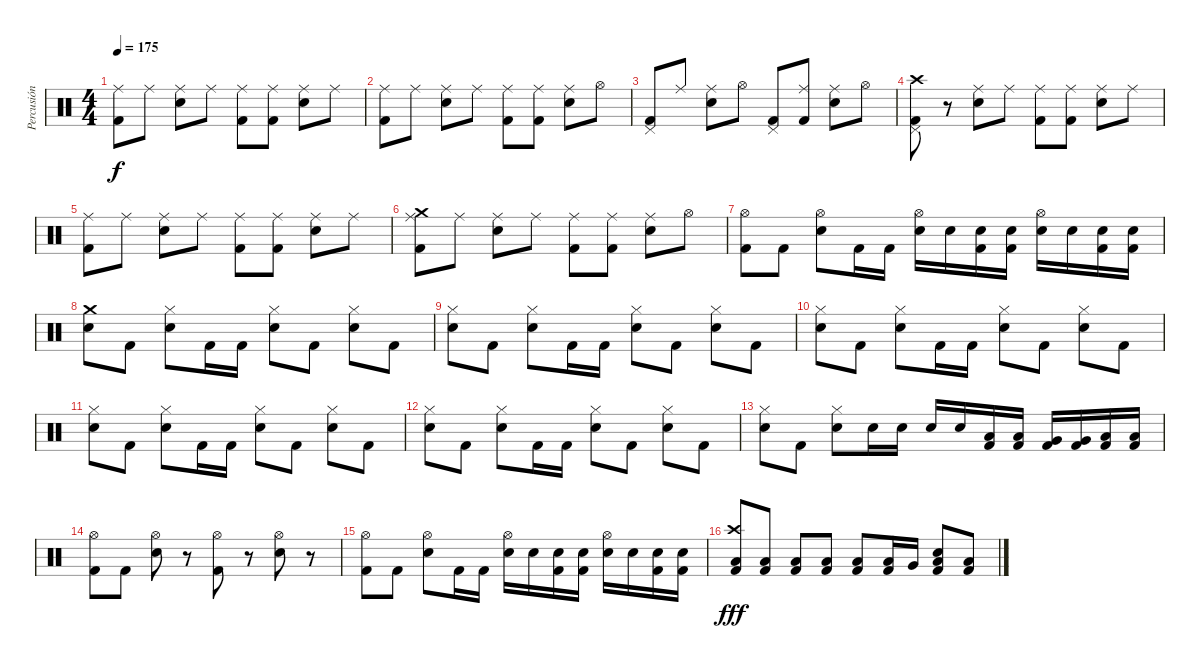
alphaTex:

\track ("Percusión" "Percusión") {instrument percussion}
\staff {score}
\articulation defaults
\ts (4 4)
\tempo 175
\clef neutral
\ks c
("Ride (middle)" "Kick (hit) 2").8{dy f} "Ride (middle)".8 ("Ride (middle)" "Electric Snare (hit)").8 "Ride (middle)".8 ("Ride (middle)" "Kick (hit) 2").8 ("Ride (middle)" "Kick (hit) 2").8 ("Ride (middle)" "Electric Snare (hit)").8 "Ride (middle)".8 |
("Ride (middle)" "Kick (hit) 2").8 "Ride (middle)".8 ("Ride (middle)" "Electric Snare (hit)").8 "Ride (middle)".8 ("Ride (middle)" "Kick (hit) 2").8 ("Ride (middle)" "Kick (hit) 2").8 ("Ride (middle)" "Electric Snare (hit)").8 "Hi-Hat (open)".8 |
("Pedal Hi-Hat (hit)" "Kick (hit) 2").8 "Ride (middle)".8 ("Ride (middle)" "Electric Snare (hit)").8 "Hi-Hat (open)".8 ("Pedal Hi-Hat (hit)" "Kick (hit) 2").8 ("Ride (middle)" "Kick (hit) 2").8 ("Ride (middle)" "Electric Snare (hit)").8 "Hi-Hat (open)".8 |
("Crash high (hit)" "Pedal Hi-Hat (hit)" "Kick (hit) 2").8 r.8 ("Ride (middle)" "Electric Snare (hit)").8 "Ride (middle)".8 ("Ride (middle)" "Kick (hit) 2").8 ("Ride (middle)" "Kick (hit) 2").8 ("Ride (middle)" "Electric Snare (hit)").8 "Ride (middle)".8 |
("Ride (middle)" "Kick (hit) 2").8 "Ride (middle)".8 ("Ride (middle)" "Electric Snare (hit)").8 "Ride (middle)".8 ("Ride (middle)" "Kick (hit) 2").8 ("Ride (middle)" "Kick (hit) 2").8 ("Ride (middle)" "Electric Snare (hit)").8 "Ride (middle)".8 |
("Crash medium (hit)" "Ride (middle)" "Kick (hit) 2").8 "Ride (middle)".8 ("Ride (middle)" "Electric Snare (hit)").8 "Ride (middle)".8 ("Ride (middle)" "Kick (hit) 2").8 ("Ride (middle)" "Kick (hit) 2").8 ("Ride (middle)" "Electric Snare (hit)").8 "Hi-Hat (open)".8 |
("Hi-Hat (open)" "Kick (hit) 2").8 "Kick (hit) 2".8 ("Hi-Hat (open)" "Electric Snare (hit)").8 "Kick (hit) 2".16 "Kick (hit) 2".16 ("Hi-Hat (open)" "Electric Snare (hit)").16 "Electric Snare (hit)".16 ("Electric Snare (hit)" "Kick (hit) 2").16 ("Electric Snare (hit)" "Kick (hit) 2").16 ("Hi-Hat (open)" "Electric Snare (hit)").16 "Electric Snare (hit)".16 ("Electric Snare (hit)" "Kick (hit) 2").16 ("Electric Snare (hit)" "Kick (hit) 2").16 |
("Crash medium (hit)" "Electric Snare (hit)").8 "Kick (hit) 2".8 ("Hi-Hat (closed)" "Electric Snare (hit)").8 "Kick (hit) 2".16 "Kick (hit) 2".16 ("Hi-Hat (closed)" "Electric Snare (hit)").8 "Kick (hit) 2".8 ("Hi-Hat (closed)" "Electric Snare (hit)").8 "Kick (hit) 2".8 |
("Hi-Hat (closed)" "Electric Snare (hit)").8 "Kick (hit) 2".8 ("Hi-Hat (closed)" "Electric Snare (hit)").8 "Kick (hit) 2".16 "Kick (hit) 2".16 ("Hi-Hat (closed)" "Electric Snare (hit)").8 "Kick (hit) 2".8 ("Hi-Hat (closed)" "Electric Snare (hit)").8 "Kick (hit) 2".8 |
("Hi-Hat (closed)" "Electric Snare (hit)").8 "Kick (hit) 2".8 ("Hi-Hat (closed)" "Electric Snare (hit)").8 "Kick (hit) 2".16 "Kick (hit) 2".16 ("Hi-Hat (closed)" "Electric Snare (hit)").8 "Kick (hit) 2".8 ("Hi-Hat (closed)" "Electric Snare (hit)").8 "Kick (hit) 2".8 |
("Hi-Hat (closed)" "Electric Snare (hit)").8 "Kick (hit) 2".8 ("Hi-Hat (closed)" "Electric Snare (hit)").8 "Kick (hit) 2".16 "Kick (hit) 2".16 ("Hi-Hat (closed)" "Electric Snare (hit)").8 "Kick (hit) 2".8 ("Hi-Hat (closed)" "Electric Snare (hit)").8 "Kick (hit) 2".8 |
("Hi-Hat (closed)" "Electric Snare (hit)").8 "Kick (hit) 2".8 ("Hi-Hat (closed)" "Electric Snare (hit)").8 "Kick (hit) 2".16 "Kick (hit) 2".16 ("Hi-Hat (closed)" "Electric Snare (hit)").8 "Kick (hit) 2".8 ("Hi-Hat (closed)" "Electric Snare (hit)").8 "Kick (hit) 2".8 |
("Hi-Hat (closed)" "Electric Snare (hit)").8 "Kick (hit) 2".8 ("Hi-Hat (closed)" "Electric Snare (hit)").8 "Electric Snare (hit)".16 "Electric Snare (hit)".16 "Electric Snare (hit)".16 "Electric Snare (hit)".16 ("Low Tom (hit)" "Kick (hit) 2").16 ("Low Tom (hit)" "Kick (hit) 2").16 ("Very Low Tom (hit)" "Kick (hit) 2").16 ("Very Low Tom (hit)" "Kick (hit) 2").16 ("Low Floor Tom (hit)" "Kick (hit) 2").16 ("Low Floor Tom (hit)" "Kick (hit) 2").16 |
("Hi-Hat (open)" "Kick (hit) 2").8 "Kick (hit) 2".8 ("Hi-Hat (open)" "Electric Snare (hit)").8 r.8 ("Hi-Hat (open)" "Kick (hit) 2").8 r.8 ("Hi-Hat (open)" "Electric Snare (hit)").8 r.8 |
("Hi-Hat (open)" "Kick (hit) 2").8 "Kick (hit) 2".8 ("Hi-Hat (open)" "Electric Snare (hit)").8 "Kick (hit) 2".16 "Kick (hit) 2".16 ("Hi-Hat (open)" "Electric Snare (hit)").16 "Electric Snare (hit)".16 ("Electric Snare (hit)" "Kick (hit) 2").16 ("Electric Snare (hit)" "Kick (hit) 2").16 ("Hi-Hat (open)" "Electric Snare (hit)").16 "Electric Snare (hit)".16 ("Electric Snare (hit)" "Kick (hit) 2").16 ("Electric Snare (hit)" "Kick (hit) 2").16 |
("Crash high (hit)" "Low Tom (hit)" "Kick (hit) 2").8{dy fff} ("Low Tom (hit)" "Kick (hit) 2").8 ("Low Tom (hit)" "Kick (hit) 2").8 ("Low Tom (hit)" "Kick (hit) 2").8 ("Low Tom (hit)" "Kick (hit) 2").8 ("Low Tom (hit)" "Kick (hit) 2").16 "Very Low Tom (hit)".16 ("Low Tom (hit)" "Electric Snare (hit)" "Kick (hit) 2").8 ("Low Tom (hit)" "Kick (hit) 2").8
